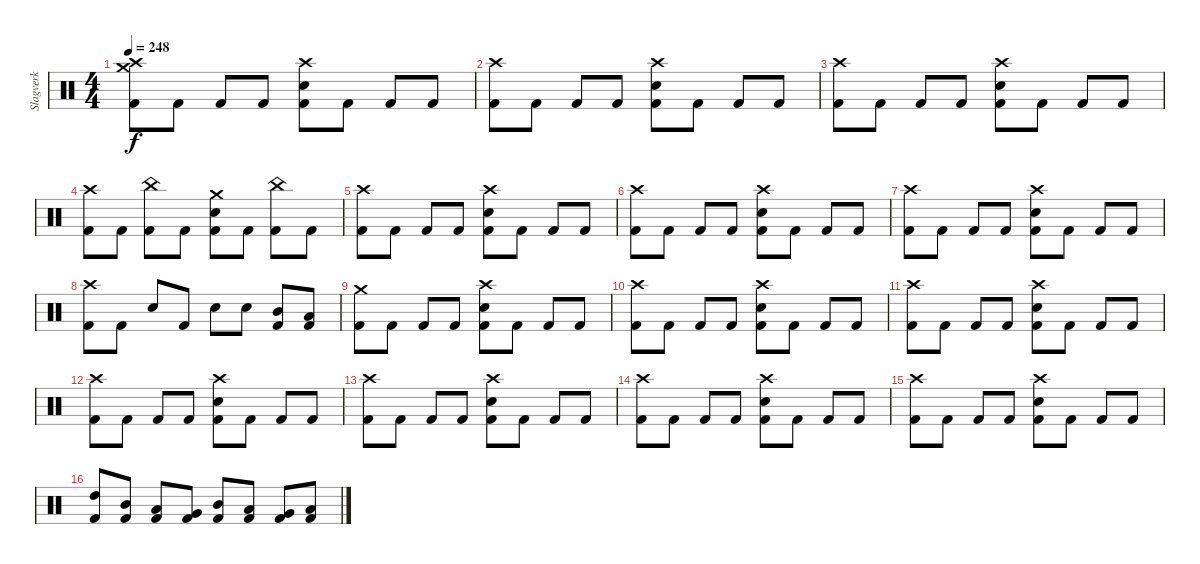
\track ("Slagverk" "Slagverk") {instrument percussion}
\staff {score}
\articulation defaults
\ts (4 4)
\tempo 248
\clef neutral
\ks c
("Crash medium (hit)" "Crash high (hit)" "Kick (hit) 2").8{dy f} "Kick (hit) 2".8 "Kick (hit) 2".8 "Kick (hit) 2".8 ("Crash high (hit)" "Snare (hit) 2" "Kick (hit) 2").8 "Kick (hit) 2".8 "Kick (hit) 2".8 "Kick (hit) 2".8 |
("Crash high (hit)" "Kick (hit) 2").8 "Kick (hit) 2".8 "Kick (hit) 2".8 "Kick (hit) 2".8 ("Crash high (hit)" "Snare (hit) 2" "Kick (hit) 2").8 "Kick (hit) 2".8 "Kick (hit) 2".8 "Kick (hit) 2".8 |
("Crash high (hit)" "Kick (hit) 2").8 "Kick (hit) 2".8 "Kick (hit) 2".8 "Kick (hit) 2".8 ("Crash high (hit)" "Snare (hit) 2" "Kick (hit) 2").8 "Kick (hit) 2".8 "Kick (hit) 2".8 "Kick (hit) 2".8 |
("Crash high (hit)" "Kick (hit) 2").8 "Kick (hit) 2".8 ("China (hit)" "Kick (hit) 2").8 "Kick (hit) 2".8 ("Crash medium (hit)" "Snare (hit) 2" "Kick (hit) 2").8 "Kick (hit) 2".8 ("China (hit)" "Kick (hit) 2").8 "Kick (hit) 2".8 |
("Crash high (hit)" "Kick (hit) 2").8 "Kick (hit) 2".8 "Kick (hit) 2".8 "Kick (hit) 2".8 ("Crash high (hit)" "Snare (hit) 2" "Kick (hit) 2").8 "Kick (hit) 2".8 "Kick (hit) 2".8 "Kick (hit) 2".8 |
("Crash high (hit)" "Kick (hit) 2").8 "Kick (hit) 2".8 "Kick (hit) 2".8 "Kick (hit) 2".8 ("Crash high (hit)" "Snare (hit) 2" "Kick (hit) 2").8 "Kick (hit) 2".8 "Kick (hit) 2".8 "Kick (hit) 2".8 |
("Crash high (hit)" "Kick (hit) 2").8 "Kick (hit) 2".8 "Kick (hit) 2".8 "Kick (hit) 2".8 ("Crash high (hit)" "Snare (hit) 2" "Kick (hit) 2").8 "Kick (hit) 2".8 "Kick (hit) 2".8 "Kick (hit) 2".8 |
("Crash high (hit)" "Kick (hit) 2").8 "Kick (hit) 2".8 "Snare (hit) 2".8 "Kick (hit) 2".8 "Snare (hit) 2".8 "Snare (hit) 2".8 ("Mid Tom (hit)" "Kick (hit) 2").8 ("Low Tom (hit)" "Kick (hit) 2").8 |
("Crash medium (hit)" "Kick (hit) 2").8 "Kick (hit) 2".8 "Kick (hit) 2".8 "Kick (hit) 2".8 ("Crash high (hit)" "Snare (hit) 2" "Kick (hit) 2").8 "Kick (hit) 2".8 "Kick (hit) 2".8 "Kick (hit) 2".8 |
("Crash high (hit)" "Kick (hit) 2").8 "Kick (hit) 2".8 "Kick (hit) 2".8 "Kick (hit) 2".8 ("Crash high (hit)" "Snare (hit) 2" "Kick (hit) 2").8 "Kick (hit) 2".8 "Kick (hit) 2".8 "Kick (hit) 2".8 |
("Crash high (hit)" "Kick (hit) 2").8 "Kick (hit) 2".8 "Kick (hit) 2".8 "Kick (hit) 2".8 ("Crash high (hit)" "Snare (hit) 2" "Kick (hit) 2").8 "Kick (hit) 2".8 "Kick (hit) 2".8 "Kick (hit) 2".8 |
("Crash high (hit)" "Kick (hit) 2").8 "Kick (hit) 2".8 "Kick (hit) 2".8 "Kick (hit) 2".8 ("Crash high (hit)" "Snare (hit) 2" "Kick (hit) 2").8 "Kick (hit) 2".8 "Kick (hit) 2".8 "Kick (hit) 2".8 |
("Crash high (hit)" "Kick (hit) 2").8 "Kick (hit) 2".8 "Kick (hit) 2".8 "Kick (hit) 2".8 ("Crash high (hit)" "Snare (hit) 2" "Kick (hit) 2").8 "Kick (hit) 2".8 "Kick (hit) 2".8 "Kick (hit) 2".8 |
("Crash high (hit)" "Kick (hit) 2").8 "Kick (hit) 2".8 "Kick (hit) 2".8 "Kick (hit) 2".8 ("Crash high (hit)" "Snare (hit) 2" "Kick (hit) 2").8 "Kick (hit) 2".8 "Kick (hit) 2".8 "Kick (hit) 2".8 |
("Crash high (hit)" "Kick (hit) 2").8 "Kick (hit) 2".8 "Kick (hit) 2".8 "Kick (hit) 2".8 ("Crash high (hit)" "Snare (hit) 2" "Kick (hit) 2").8 "Kick (hit) 2".8 "Kick (hit) 2".8 "Kick (hit) 2".8 |
("High Tom (hit)" "Kick (hit) 2").8 ("Mid Tom (hit)" "Kick (hit) 2").8 ("Low Tom (hit)" "Kick (hit) 2").8 ("Very Low Tom (hit)" "Kick (hit) 2").8 ("Mid Tom (hit)" "Kick (hit) 2").8 ("Low Tom (hit)" "Kick (hit) 2").8 ("Very Low Tom (hit)" "Kick (hit) 2").8 ("Low Floor Tom (hit)" "Kick (hit) 2").8
